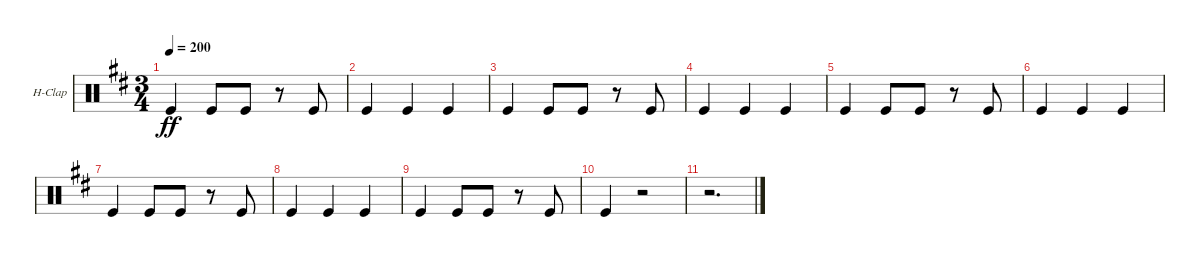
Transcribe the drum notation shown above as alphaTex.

\defaultSystemsLayout 4
\bracketExtendMode groupsimilarinstruments
\firstSystemTrackNameOrientation horizontal
\otherSystemsTrackNameOrientation horizontal
\track ("Hand Clap" "H-Clap") {instrument percussion}
\staff {score}
\articulation defaults
\ts (3 4)
\tempo 200
\clef neutral
\ks d "Kick (hit)".4{dy ff} "Kick (hit)".8 "Kick (hit)".8
r.8 "Kick (hit)".8 |
"Kick (hit)".4 "Kick (hit)".4 "Kick (hit)".4 |
"Kick (hit)".4 "Kick (hit)".8 "Kick (hit)".8 r.8 "Kick (hit)".8 |
"Kick (hit)".4 "Kick (hit)".4 "Kick (hit)".4 |
"Kick (hit)".4 "Kick (hit)".8 "Kick (hit)".8 r.8 "Kick (hit)".8 |
"Kick (hit)".4 "Kick (hit)".4 "Kick (hit)".4 |
"Kick (hit)".4 "Kick (hit)".8 "Kick (hit)".8 r.8 "Kick (hit)".8 |
"Kick (hit)".4 "Kick (hit)".4 "Kick (hit)".4 |
"Kick (hit)".4 "Kick (hit)".8 "Kick (hit)".8 r.8 "Kick (hit)".8 |
"Kick (hit)".4 r.2 |
r.2{d}
